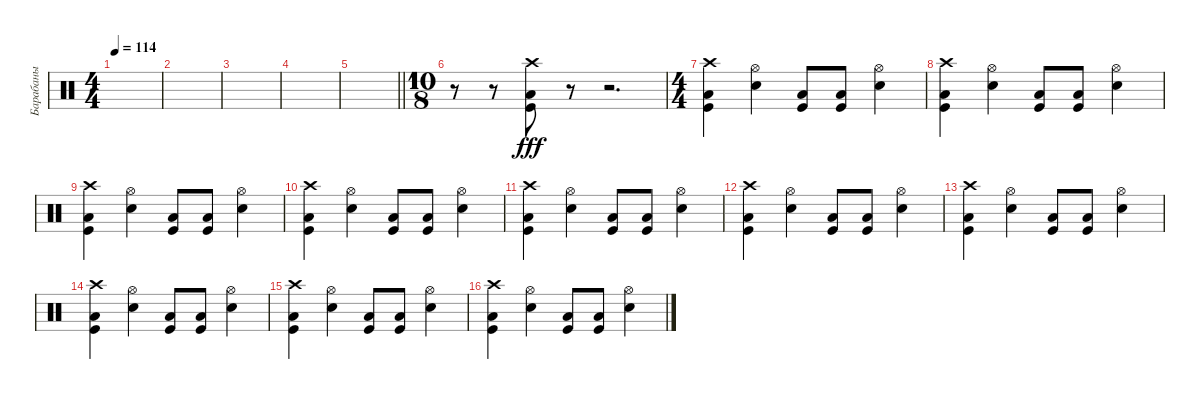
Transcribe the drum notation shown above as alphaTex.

\track ("Барабаны" "Барабаны") {instrument percussion}
\staff {score}
\articulation defaults
\ts (4 4)
\tempo 114
\clef neutral
\ks c
|
|
|
|
\barLineRight lightlight
|
\ts (10 8)
r.8 r.8 ("Low Floor Tom (hit)" "Kick (hit)" "Crash high (hit)").8{dy fff} r.8 r.2{d} |
\ts (4 4)
("Low Floor Tom (hit)" "Kick (hit)" "Crash high (hit)").4 ("Electric Snare (hit)" "Hi-Hat (open)").4 ("Low Floor Tom (hit)" "Kick (hit)").8 ("Low Floor Tom (hit)" "Kick (hit)").8 ("Electric Snare (hit)" "Hi-Hat (open)").4 |
("Low Floor Tom (hit)" "Kick (hit)" "Crash high (hit)").4 ("Electric Snare (hit)" "Hi-Hat (open)").4 ("Low Floor Tom (hit)" "Kick (hit)").8 ("Low Floor Tom (hit)" "Kick (hit)").8 ("Electric Snare (hit)" "Hi-Hat (open)").4 |
("Low Floor Tom (hit)" "Kick (hit)" "Crash high (hit)").4 ("Electric Snare (hit)" "Hi-Hat (open)").4 ("Low Floor Tom (hit)" "Kick (hit)").8 ("Low Floor Tom (hit)" "Kick (hit)").8 ("Electric Snare (hit)" "Hi-Hat (open)").4 |
("Low Floor Tom (hit)" "Kick (hit)" "Crash high (hit)").4 ("Electric Snare (hit)" "Hi-Hat (open)").4 ("Low Floor Tom (hit)" "Kick (hit)").8 ("Low Floor Tom (hit)" "Kick (hit)").8 ("Electric Snare (hit)" "Hi-Hat (open)").4 |
("Low Floor Tom (hit)" "Kick (hit)" "Crash high (hit)").4 ("Electric Snare (hit)" "Hi-Hat (open)").4 ("Low Floor Tom (hit)" "Kick (hit)").8 ("Low Floor Tom (hit)" "Kick (hit)").8 ("Electric Snare (hit)" "Hi-Hat (open)").4 |
("Low Floor Tom (hit)" "Kick (hit)" "Crash high (hit)").4 ("Electric Snare (hit)" "Hi-Hat (open)").4 ("Low Floor Tom (hit)" "Kick (hit)").8 ("Low Floor Tom (hit)" "Kick (hit)").8 ("Electric Snare (hit)" "Hi-Hat (open)").4 |
("Low Floor Tom (hit)" "Kick (hit)" "Crash high (hit)").4 ("Electric Snare (hit)" "Hi-Hat (open)").4 ("Low Floor Tom (hit)" "Kick (hit)").8 ("Low Floor Tom (hit)" "Kick (hit)").8 ("Electric Snare (hit)" "Hi-Hat (open)").4 |
("Low Floor Tom (hit)" "Kick (hit)" "Crash high (hit)").4 ("Electric Snare (hit)" "Hi-Hat (open)").4 ("Low Floor Tom (hit)" "Kick (hit)").8 ("Low Floor Tom (hit)" "Kick (hit)").8 ("Electric Snare (hit)" "Hi-Hat (open)").4 |
("Low Floor Tom (hit)" "Kick (hit)" "Crash high (hit)").4 ("Electric Snare (hit)" "Hi-Hat (open)").4 ("Low Floor Tom (hit)" "Kick (hit)").8 ("Low Floor Tom (hit)" "Kick (hit)").8 ("Electric Snare (hit)" "Hi-Hat (open)").4 |
("Low Floor Tom (hit)" "Kick (hit)" "Crash high (hit)").4 ("Electric Snare (hit)" "Hi-Hat (open)").4 ("Low Floor Tom (hit)" "Kick (hit)").8 ("Low Floor Tom (hit)" "Kick (hit)").8 ("Electric Snare (hit)" "Hi-Hat (open)").4
